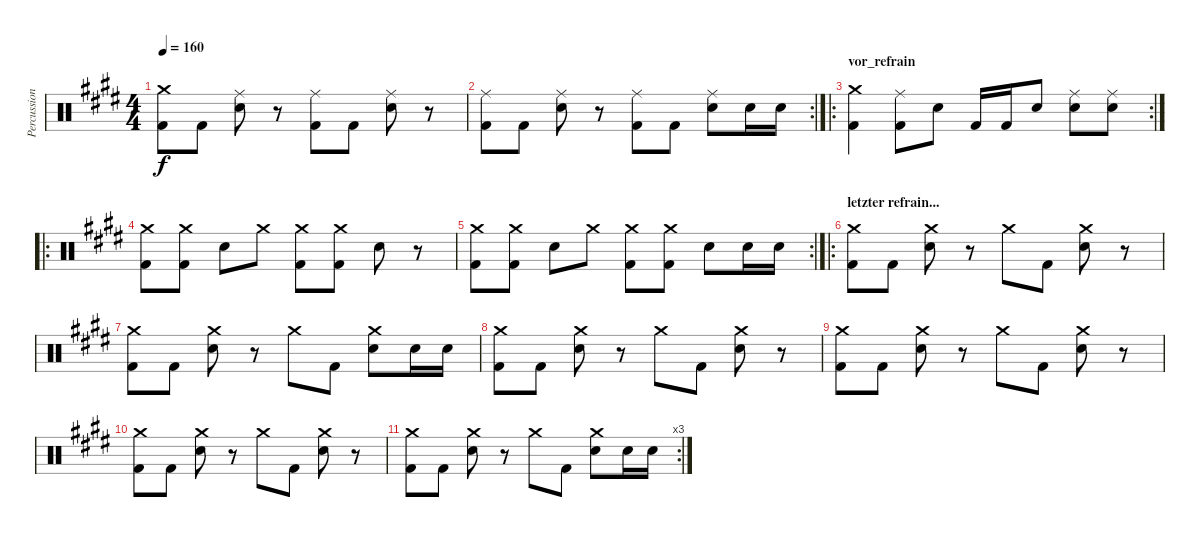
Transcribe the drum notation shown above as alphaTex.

\track ("Percussion" "Percussion") {instrument percussion}
\staff {score}
\articulation defaults
\ts (4 4)
\tempo 160
\clef neutral
\ks e
("Crash medium (hit)" "Kick (hit) 2").8{dy f} "Kick (hit) 2".8 ("Ride (middle)" "Electric Snare (hit)").8 r.8 ("Ride (middle)" "Kick (hit) 2").8 "Kick (hit) 2".8 ("Ride (middle)" "Electric Snare (hit)").8 r.8 |
\rc 2
("Ride (middle)" "Kick (hit) 2").8 "Kick (hit) 2".8 ("Ride (middle)" "Electric Snare (hit)").8 r.8 ("Ride (middle)" "Kick (hit) 2").8 "Kick (hit) 2".8 ("Ride (middle)" "Electric Snare (hit)").8 "Electric Snare (hit)".16 "Electric Snare (hit)".16 |
\ro
\rc 2
\section ("" "vor_refrain")
("Crash medium (hit)" "Kick (hit) 2").4 ("Ride (middle)" "Kick (hit) 2").8 "Electric Snare (hit)".8 "Kick (hit) 2".16 "Kick (hit) 2".16 "Electric Snare (hit)".8 ("Ride (middle)" "Electric Snare (hit)").8 ("Ride (middle)" "Electric Snare (hit)").8 |
\ro
("Crash medium (hit)" "Kick (hit) 2").8 ("Crash medium (hit)" "Kick (hit) 2").8 "Electric Snare (hit)".8 "Crash medium (hit)".8 ("Crash medium (hit)" "Kick (hit) 2").8 ("Crash medium (hit)" "Kick (hit) 2").8 "Electric Snare (hit)".8 r.8 |
\rc 2
("Crash medium (hit)" "Kick (hit) 2").8 ("Crash medium (hit)" "Kick (hit) 2").8 "Electric Snare (hit)".8 "Crash medium (hit)".8 ("Crash medium (hit)" "Kick (hit) 2").8 ("Crash medium (hit)" "Kick (hit) 2").8 "Electric Snare (hit)".8 "Electric Snare (hit)".16 "Electric Snare (hit)".16 |
\ro
\section ("" "letzter refrain...")
("Crash medium (hit)" "Kick (hit) 2").8 "Kick (hit) 2".8 ("Crash medium (hit)" "Electric Snare (hit)").8 r.8 "Crash medium (hit)".8 "Kick (hit) 2".8 ("Crash medium (hit)" "Electric Snare (hit)").8 r.8 |
("Crash medium (hit)" "Kick (hit) 2").8 "Kick (hit) 2".8 ("Crash medium (hit)" "Electric Snare (hit)").8 r.8 "Crash medium (hit)".8 "Kick (hit) 2".8 ("Crash medium (hit)" "Electric Snare (hit)").8 "Electric Snare (hit)".16 "Electric Snare (hit)".16 |
("Crash medium (hit)" "Kick (hit) 2").8 "Kick (hit) 2".8 ("Crash medium (hit)" "Electric Snare (hit)").8 r.8 "Crash medium (hit)".8 "Kick (hit) 2".8 ("Crash medium (hit)" "Electric Snare (hit)").8 r.8 |
("Crash medium (hit)" "Kick (hit) 2").8 "Kick (hit) 2".8 ("Crash medium (hit)" "Electric Snare (hit)").8 r.8 "Crash medium (hit)".8 "Kick (hit) 2".8 ("Crash medium (hit)" "Electric Snare (hit)").8 r.8 |
("Crash medium (hit)" "Kick (hit) 2").8 "Kick (hit) 2".8 ("Crash medium (hit)" "Electric Snare (hit)").8 r.8 "Crash medium (hit)".8 "Kick (hit) 2".8 ("Crash medium (hit)" "Electric Snare (hit)").8 r.8 |
\rc 3
("Crash medium (hit)" "Kick (hit) 2").8 "Kick (hit) 2".8 ("Crash medium (hit)" "Electric Snare (hit)").8 r.8 "Crash medium (hit)".8 "Kick (hit) 2".8 ("Crash medium (hit)" "Electric Snare (hit)").8 "Electric Snare (hit)".16 "Electric Snare (hit)".16
